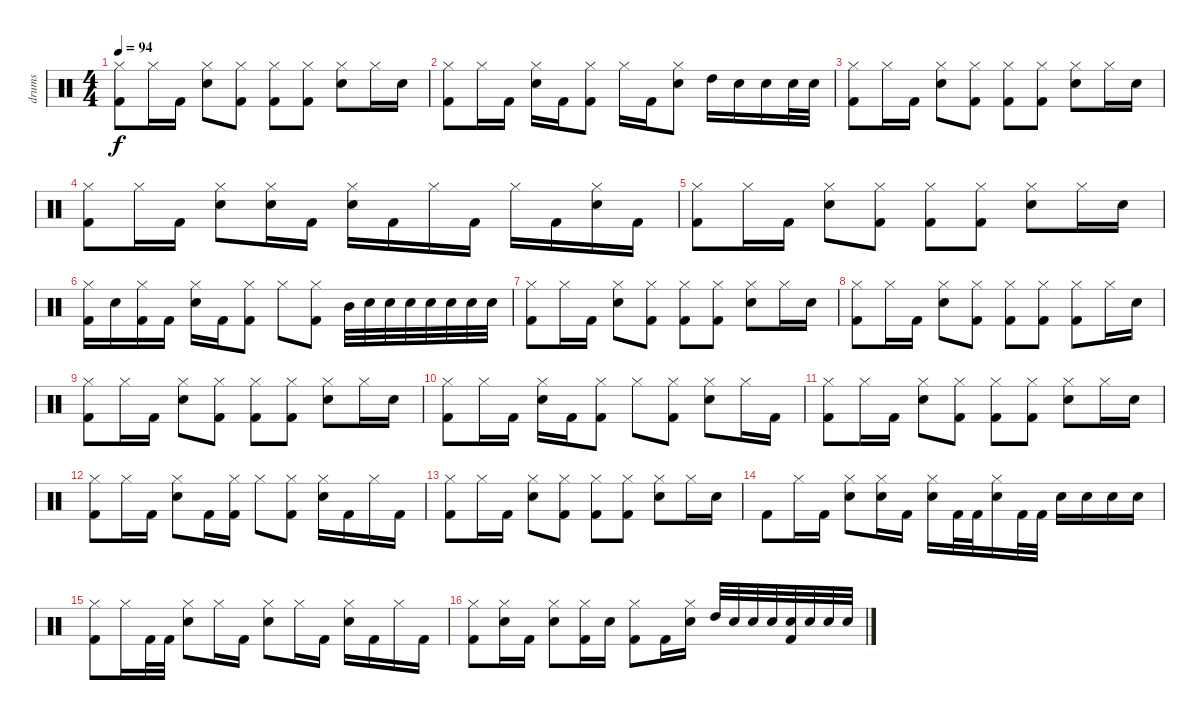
\track ("drums" "drums") {instrument percussion}
\staff {score}
\articulation defaults
\ts (4 4)
\tempo 94
\clef neutral
\ks c
("Kick (hit) 2" "Hi-Hat (closed)").8{dy f} "Hi-Hat (closed)".16 "Kick (hit) 2".16 ("Hi-Hat (closed)" "Snare (hit) 2").8 ("Kick (hit) 2" "Hi-Hat (closed)").8 ("Kick (hit) 2" "Hi-Hat (closed)").8 ("Hi-Hat (closed)" "Kick (hit) 2").8 ("Hi-Hat (closed)" "Snare (hit) 2").8 "Hi-Hat (closed)".16 "Snare (hit) 2".16 |
("Kick (hit) 2" "Hi-Hat (closed)").8 "Hi-Hat (closed)".16 "Kick (hit) 2".16 ("Hi-Hat (closed)" "Snare (hit) 2").16 "Kick (hit) 2".16 ("Hi-Hat (closed)" "Kick (hit) 2").8 "Hi-Hat (closed)".16 "Kick (hit) 2".16 ("Snare (hit) 2" "Hi-Hat (closed)").8 "High Tom (hit)".16 "Snare (hit) 2".16 "Snare (hit) 2".16 "Snare (hit) 2".32 "Snare (hit) 2".32 |
("Kick (hit) 2" "Hi-Hat (closed)").8 "Hi-Hat (closed)".16 "Kick (hit) 2".16 ("Hi-Hat (closed)" "Snare (hit) 2").8 ("Kick (hit) 2" "Hi-Hat (closed)").8 ("Kick (hit) 2" "Hi-Hat (closed)").8 ("Hi-Hat (closed)" "Kick (hit) 2").8 ("Hi-Hat (closed)" "Snare (hit) 2").8 "Hi-Hat (closed)".16 "Snare (hit) 2".16 |
("Hi-Hat (closed)" "Kick (hit) 2").8 "Hi-Hat (closed)".16 "Kick (hit) 2".16 ("Hi-Hat (closed)" "Snare (hit) 2").8 ("Hi-Hat (closed)" "Snare (hit) 2").16 "Kick (hit) 2".16 ("Snare (hit) 2" "Hi-Hat (closed)").16 "Kick (hit) 2".16 "Hi-Hat (closed)".16 "Kick (hit) 2".16 "Hi-Hat (closed)".16 "Kick (hit) 2".16 ("Hi-Hat (closed)" "Snare (hit) 2").16 "Kick (hit) 2".16 |
("Kick (hit) 2" "Hi-Hat (closed)").8 "Hi-Hat (closed)".16 "Kick (hit) 2".16 ("Hi-Hat (closed)" "Snare (hit) 2").8 ("Kick (hit) 2" "Hi-Hat (closed)").8 ("Kick (hit) 2" "Hi-Hat (closed)").8 ("Hi-Hat (closed)" "Kick (hit) 2").8 ("Hi-Hat (closed)" "Snare (hit) 2").8 "Hi-Hat (closed)".16 "Snare (hit) 2".16 |
("Hi-Hat (closed)" "Kick (hit) 2").16 "Snare (hit) 2".16 ("Hi-Hat (closed)" "Kick (hit) 2").16 "Kick (hit) 2".16 ("Hi-Hat (closed)" "Snare (hit) 2").16 "Kick (hit) 2".16 ("Kick (hit) 2" "Hi-Hat (closed)").8 "Hi-Hat (closed)".8 ("Hi-Hat (closed)" "Kick (hit) 2").8 "Mid Tom (hit)".32 "Snare (hit) 2".32 "Snare (hit) 2".32 "Snare (hit) 2".32 "Snare (hit) 2".32 "Snare (hit) 2".32 "Snare (hit) 2".32 "Snare (hit) 2".32 |
("Kick (hit) 2" "Hi-Hat (closed)").8 "Hi-Hat (closed)".16 "Kick (hit) 2".16 ("Hi-Hat (closed)" "Snare (hit) 2").8 ("Kick (hit) 2" "Hi-Hat (closed)").8 ("Kick (hit) 2" "Hi-Hat (closed)").8 ("Hi-Hat (closed)" "Kick (hit) 2").8 ("Hi-Hat (closed)" "Snare (hit) 2").8 "Hi-Hat (closed)".16 "Snare (hit) 2".16 |
("Kick (hit) 2" "Hi-Hat (closed)").8 "Hi-Hat (closed)".16 "Kick (hit) 2".16 ("Hi-Hat (closed)" "Snare (hit) 2").8 ("Kick (hit) 2" "Hi-Hat (closed)").8 ("Kick (hit) 2" "Hi-Hat (closed)").8 ("Hi-Hat (closed)" "Kick (hit) 2").8 ("Hi-Hat (closed)" "Kick (hit) 2").8 "Hi-Hat (closed)".16 "Snare (hit) 2".16 |
("Kick (hit) 2" "Hi-Hat (closed)").8 "Hi-Hat (closed)".16 "Kick (hit) 2".16 ("Hi-Hat (closed)" "Snare (hit) 2").8 ("Kick (hit) 2" "Hi-Hat (closed)").8 ("Kick (hit) 2" "Hi-Hat (closed)").8 ("Hi-Hat (closed)" "Kick (hit) 2").8 ("Hi-Hat (closed)" "Snare (hit) 2").8 "Hi-Hat (closed)".16 "Snare (hit) 2".16 |
("Hi-Hat (closed)" "Kick (hit) 2").8 "Hi-Hat (closed)".16 "Kick (hit) 2".16 ("Hi-Hat (closed)" "Snare (hit) 2").16 "Kick (hit) 2".16 ("Hi-Hat (closed)" "Kick (hit) 2").8 "Hi-Hat (closed)".8 ("Hi-Hat (closed)" "Kick (hit) 2").8 ("Hi-Hat (closed)" "Snare (hit) 2").8 "Hi-Hat (closed)".16 "Kick (hit) 2".16 |
("Kick (hit) 2" "Hi-Hat (closed)").8 "Hi-Hat (closed)".16 "Kick (hit) 2".16 ("Hi-Hat (closed)" "Snare (hit) 2").8 ("Kick (hit) 2" "Hi-Hat (closed)").8 ("Kick (hit) 2" "Hi-Hat (closed)").8 ("Hi-Hat (closed)" "Kick (hit) 2").8 ("Hi-Hat (closed)" "Snare (hit) 2").8 "Hi-Hat (closed)".16 "Snare (hit) 2".16 |
("Hi-Hat (closed)" "Kick (hit) 2").8 "Hi-Hat (closed)".16 "Kick (hit) 2".16 ("Hi-Hat (closed)" "Snare (hit) 2").8 "Kick (hit) 2".16 ("Hi-Hat (closed)" "Kick (hit) 2").16 "Hi-Hat (closed)".8 ("Hi-Hat (closed)" "Kick (hit) 2").8 ("Hi-Hat (closed)" "Snare (hit) 2").16 "Kick (hit) 2".16 "Hi-Hat (closed)".16 "Kick (hit) 2".16 |
("Kick (hit) 2" "Hi-Hat (closed)").8 "Hi-Hat (closed)".16 "Kick (hit) 2".16 ("Hi-Hat (closed)" "Snare (hit) 2").8 ("Kick (hit) 2" "Hi-Hat (closed)").8 ("Kick (hit) 2" "Hi-Hat (closed)").8 ("Hi-Hat (closed)" "Kick (hit) 2").8 ("Hi-Hat (closed)" "Snare (hit) 2").8 "Hi-Hat (closed)".16 "Snare (hit) 2".16 |
"Kick (hit) 2".8 "Hi-Hat (closed)".16 "Kick (hit) 2".16 ("Hi-Hat (closed)" "Snare (hit) 2").8 ("Hi-Hat (closed)" "Snare (hit) 2").16 "Kick (hit) 2".16 ("Snare (hit) 2" "Hi-Hat (closed)").16 "Kick (hit) 2".32 "Kick (hit) 2".32 ("Snare (hit) 2" "Hi-Hat (closed)").16 "Kick (hit) 2".32 "Kick (hit) 2".32 "Snare (hit) 2".16 "Snare (hit) 2".16 "Snare (hit) 2".16 "Snare (hit) 2".16 |
("Hi-Hat (closed)" "Kick (hit) 2").8 "Hi-Hat (closed)".16 "Kick (hit) 2".32 "Kick (hit) 2".32 ("Hi-Hat (closed)" "Snare (hit) 2").8 "Hi-Hat (closed)".16 "Kick (hit) 2".16 ("Hi-Hat (closed)" "Snare (hit) 2").8 "Hi-Hat (closed)".16 "Kick (hit) 2".16 ("Hi-Hat (closed)" "Snare (hit) 2").16 "Kick (hit) 2".16 "Hi-Hat (closed)".16 "Kick (hit) 2".16 |
("Hi-Hat (closed)" "Kick (hit) 2").8 ("Hi-Hat (closed)" "Snare (hit) 2").16 "Kick (hit) 2".16 ("Hi-Hat (closed)" "Snare (hit) 2").8 ("Hi-Hat (closed)" "Kick (hit) 2").16 "Snare (hit) 2".16 ("Hi-Hat (closed)" "Kick (hit) 2").8 "Kick (hit) 2".16 ("Snare (hit) 2" "Hi-Hat (closed)").16 "High Tom (hit)".32 "Snare (hit) 2".32 "Snare (hit) 2".32 "Snare (hit) 2".32 ("Snare (hit) 2" "Kick (hit) 2").32 "Snare (hit) 2".32 "Snare (hit) 2".32 "Snare (hit) 2".32
